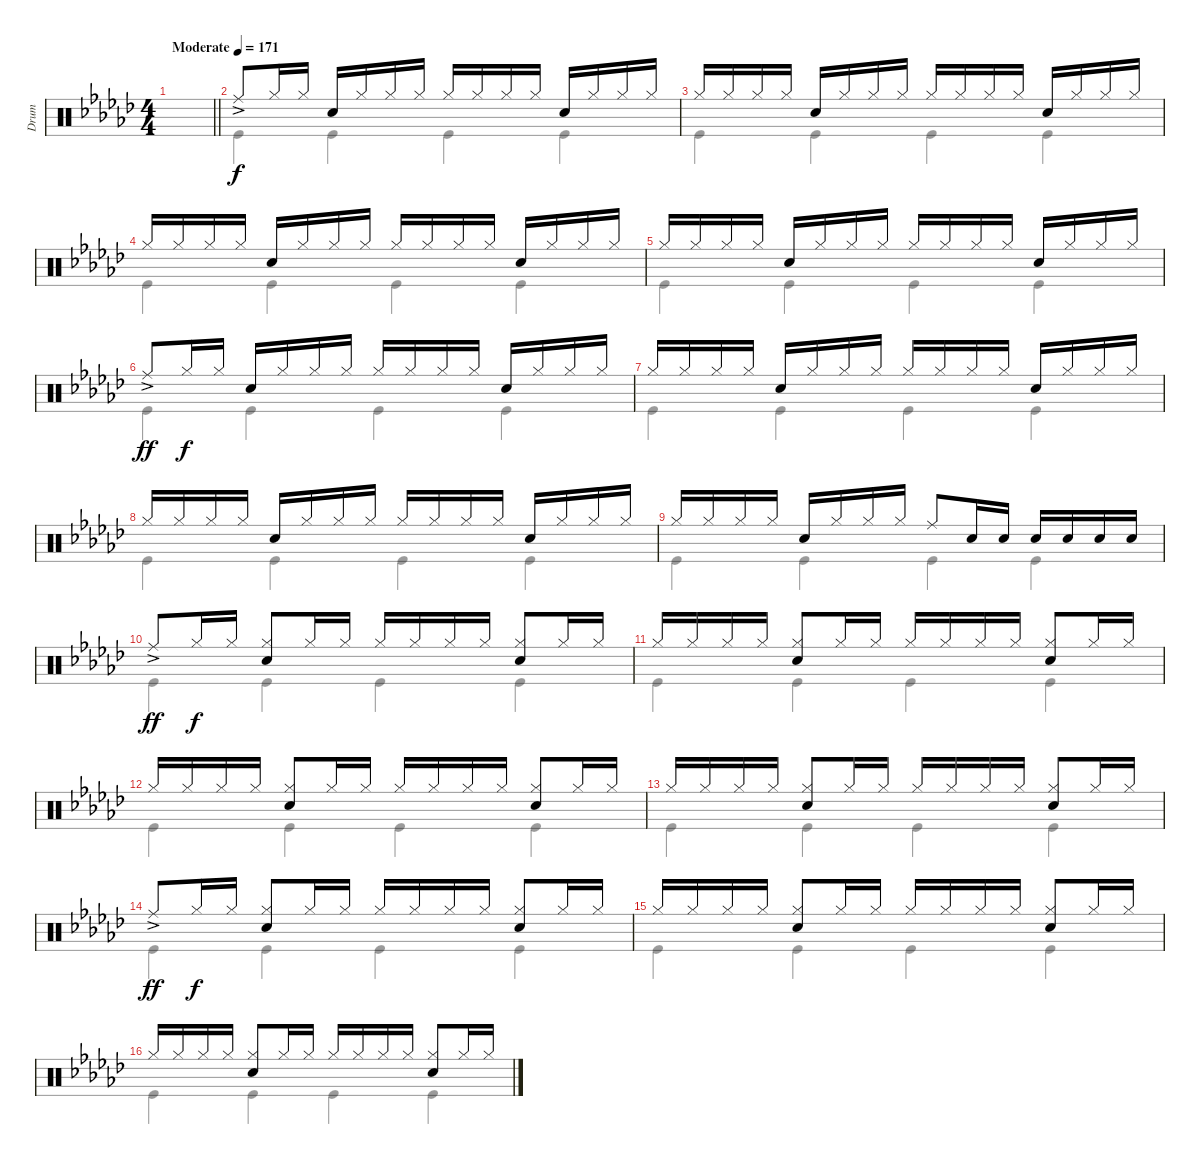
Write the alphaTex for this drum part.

\track ("Drum" "Drum") {instrument percussion}
\staff {score}
\articulation defaults
\voice
\ts (4 4)
\tempo (171 "Moderate")
\clef neutral
\barLineRight lightlight
\ks gb
|
"Ride (middle)"{ac}.8 "Hi-Hat (closed)".16{dy f} "Hi-Hat (closed)".16 "Snare (hit) 2".16 "Hi-Hat (closed)".16 "Hi-Hat (closed)".16 "Hi-Hat (closed)".16 "Hi-Hat (closed)".16 "Hi-Hat (closed)".16 "Hi-Hat (closed)".16 "Hi-Hat (closed)".16 "Snare (hit) 2".16 "Hi-Hat (closed)".16 "Hi-Hat (closed)".16 "Hi-Hat (closed)".16 |
"Hi-Hat (closed)".16 "Hi-Hat (closed)".16 "Hi-Hat (closed)".16 "Hi-Hat (closed)".16 "Snare (hit) 2".16 "Hi-Hat (closed)".16 "Hi-Hat (closed)".16 "Hi-Hat (closed)".16 "Hi-Hat (closed)".16 "Hi-Hat (closed)".16 "Hi-Hat (closed)".16 "Hi-Hat (closed)".16 "Snare (hit) 2".16 "Hi-Hat (closed)".16 "Hi-Hat (closed)".16 "Hi-Hat (closed)".16 |
"Hi-Hat (closed)".16 "Hi-Hat (closed)".16 "Hi-Hat (closed)".16 "Hi-Hat (closed)".16 "Snare (hit) 2".16 "Hi-Hat (closed)".16 "Hi-Hat (closed)".16 "Hi-Hat (closed)".16 "Hi-Hat (closed)".16 "Hi-Hat (closed)".16 "Hi-Hat (closed)".16 "Hi-Hat (closed)".16 "Snare (hit) 2".16 "Hi-Hat (closed)".16 "Hi-Hat (closed)".16 "Hi-Hat (closed)".16 |
"Hi-Hat (closed)".16 "Hi-Hat (closed)".16 "Hi-Hat (closed)".16 "Hi-Hat (closed)".16 "Snare (hit) 2".16 "Hi-Hat (closed)".16 "Hi-Hat (closed)".16 "Hi-Hat (closed)".16 "Hi-Hat (closed)".16 "Hi-Hat (closed)".16 "Hi-Hat (closed)".16 "Hi-Hat (closed)".16 "Snare (hit) 2".16 "Hi-Hat (closed)".16 "Hi-Hat (closed)".16 "Hi-Hat (closed)".16 |
"Ride (middle)"{ac}.8{dy ff} "Hi-Hat (closed)".16{dy f} "Hi-Hat (closed)".16 "Snare (hit) 2".16 "Hi-Hat (closed)".16 "Hi-Hat (closed)".16 "Hi-Hat (closed)".16 "Hi-Hat (closed)".16 "Hi-Hat (closed)".16 "Hi-Hat (closed)".16 "Hi-Hat (closed)".16 "Snare (hit) 2".16 "Hi-Hat (closed)".16 "Hi-Hat (closed)".16 "Hi-Hat (closed)".16 |
"Hi-Hat (closed)".16 "Hi-Hat (closed)".16 "Hi-Hat (closed)".16 "Hi-Hat (closed)".16 "Snare (hit) 2".16 "Hi-Hat (closed)".16 "Hi-Hat (closed)".16 "Hi-Hat (closed)".16 "Hi-Hat (closed)".16 "Hi-Hat (closed)".16 "Hi-Hat (closed)".16 "Hi-Hat (closed)".16 "Snare (hit) 2".16 "Hi-Hat (closed)".16 "Hi-Hat (closed)".16 "Hi-Hat (closed)".16 |
"Hi-Hat (closed)".16 "Hi-Hat (closed)".16 "Hi-Hat (closed)".16 "Hi-Hat (closed)".16 "Snare (hit) 2".16 "Hi-Hat (closed)".16 "Hi-Hat (closed)".16 "Hi-Hat (closed)".16 "Hi-Hat (closed)".16 "Hi-Hat (closed)".16 "Hi-Hat (closed)".16 "Hi-Hat (closed)".16 "Snare (hit) 2".16 "Hi-Hat (closed)".16 "Hi-Hat (closed)".16 "Hi-Hat (closed)".16 |
"Hi-Hat (closed)".16 "Hi-Hat (closed)".16 "Hi-Hat (closed)".16 "Hi-Hat (closed)".16 "Snare (hit) 2".16 "Hi-Hat (closed)".16 "Hi-Hat (closed)".16 "Hi-Hat (closed)".16 "Ride (middle)".8 "Snare (hit) 2".16 "Snare (hit) 2".16 "Snare (hit) 2".16 "Snare (hit) 2".16 "Snare (hit) 2".16 "Snare (hit) 2".16 |
"Ride (middle)"{ac}.8{dy ff} "Hi-Hat (closed)".16{dy f} "Hi-Hat (closed)".16 ("Snare (hit) 2" "Hi-Hat (closed)").8 "Hi-Hat (closed)".16 "Hi-Hat (closed)".16 "Hi-Hat (closed)".16 "Hi-Hat (closed)".16 "Hi-Hat (closed)".16 "Hi-Hat (closed)".16 ("Snare (hit) 2" "Hi-Hat (closed)").8 "Hi-Hat (closed)".16 "Hi-Hat (closed)".16 |
"Hi-Hat (closed)".16 "Hi-Hat (closed)".16 "Hi-Hat (closed)".16 "Hi-Hat (closed)".16 ("Snare (hit) 2" "Hi-Hat (closed)").8 "Hi-Hat (closed)".16 "Hi-Hat (closed)".16 "Hi-Hat (closed)".16 "Hi-Hat (closed)".16 "Hi-Hat (closed)".16 "Hi-Hat (closed)".16 ("Snare (hit) 2" "Hi-Hat (closed)").8 "Hi-Hat (closed)".16 "Hi-Hat (closed)".16 |
"Hi-Hat (closed)".16 "Hi-Hat (closed)".16 "Hi-Hat (closed)".16 "Hi-Hat (closed)".16 ("Snare (hit) 2" "Hi-Hat (closed)").8 "Hi-Hat (closed)".16 "Hi-Hat (closed)".16 "Hi-Hat (closed)".16 "Hi-Hat (closed)".16 "Hi-Hat (closed)".16 "Hi-Hat (closed)".16 ("Snare (hit) 2" "Hi-Hat (closed)").8 "Hi-Hat (closed)".16 "Hi-Hat (closed)".16 |
"Hi-Hat (closed)".16 "Hi-Hat (closed)".16 "Hi-Hat (closed)".16 "Hi-Hat (closed)".16 ("Snare (hit) 2" "Hi-Hat (closed)").8 "Hi-Hat (closed)".16 "Hi-Hat (closed)".16 "Hi-Hat (closed)".16 "Hi-Hat (closed)".16 "Hi-Hat (closed)".16 "Hi-Hat (closed)".16 ("Snare (hit) 2" "Hi-Hat (closed)").8 "Hi-Hat (closed)".16 "Hi-Hat (closed)".16 |
"Ride (middle)"{ac}.8{dy ff} "Hi-Hat (closed)".16{dy f} "Hi-Hat (closed)".16 ("Snare (hit) 2" "Hi-Hat (closed)").8 "Hi-Hat (closed)".16 "Hi-Hat (closed)".16 "Hi-Hat (closed)".16 "Hi-Hat (closed)".16 "Hi-Hat (closed)".16 "Hi-Hat (closed)".16 ("Snare (hit) 2" "Hi-Hat (closed)").8 "Hi-Hat (closed)".16 "Hi-Hat (closed)".16 |
"Hi-Hat (closed)".16 "Hi-Hat (closed)".16 "Hi-Hat (closed)".16 "Hi-Hat (closed)".16 ("Snare (hit) 2" "Hi-Hat (closed)").8 "Hi-Hat (closed)".16 "Hi-Hat (closed)".16 "Hi-Hat (closed)".16 "Hi-Hat (closed)".16 "Hi-Hat (closed)".16 "Hi-Hat (closed)".16 ("Snare (hit) 2" "Hi-Hat (closed)").8 "Hi-Hat (closed)".16 "Hi-Hat (closed)".16 |
"Hi-Hat (closed)".16 "Hi-Hat (closed)".16 "Hi-Hat (closed)".16 "Hi-Hat (closed)".16 ("Snare (hit) 2" "Hi-Hat (closed)").8 "Hi-Hat (closed)".16 "Hi-Hat (closed)".16 "Hi-Hat (closed)".16 "Hi-Hat (closed)".16 "Hi-Hat (closed)".16 "Hi-Hat (closed)".16 ("Snare (hit) 2" "Hi-Hat (closed)").8 "Hi-Hat (closed)".16 "Hi-Hat (closed)".16
\voice
\clef neutral
\ottava regular
\simile none
\barLineRight lightlight
\ks gb
|
"Kick (hit)".4 "Kick (hit)".4 "Kick (hit)".4 "Kick (hit)".4 |
"Kick (hit)".4 "Kick (hit)".4 "Kick (hit)".4 "Kick (hit)".4 |
"Kick (hit)".4 "Kick (hit)".4 "Kick (hit)".4 "Kick (hit)".4 |
"Kick (hit)".4 "Kick (hit)".4 "Kick (hit)".4 "Kick (hit)".4 |
"Kick (hit)".4 "Kick (hit)".4 "Kick (hit)".4 "Kick (hit)".4 |
"Kick (hit)".4 "Kick (hit)".4 "Kick (hit)".4 "Kick (hit)".4 |
"Kick (hit)".4 "Kick (hit)".4 "Kick (hit)".4 "Kick (hit)".4 |
"Kick (hit)".4 "Kick (hit)".4 "Kick (hit)".4 "Kick (hit)".4 |
"Kick (hit)".4 "Kick (hit)".4 "Kick (hit)".4 "Kick (hit)".4 |
"Kick (hit)".4 "Kick (hit)".4 "Kick (hit)".4 "Kick (hit)".4 |
"Kick (hit)".4 "Kick (hit)".4 "Kick (hit)".4 "Kick (hit)".4 |
"Kick (hit)".4 "Kick (hit)".4 "Kick (hit)".4 "Kick (hit)".4 |
"Kick (hit)".4 "Kick (hit)".4 "Kick (hit)".4 "Kick (hit)".4 |
"Kick (hit)".4 "Kick (hit)".4 "Kick (hit)".4 "Kick (hit)".4 |
"Kick (hit)".4 "Kick (hit)".4 "Kick (hit)".4 "Kick (hit)".4
